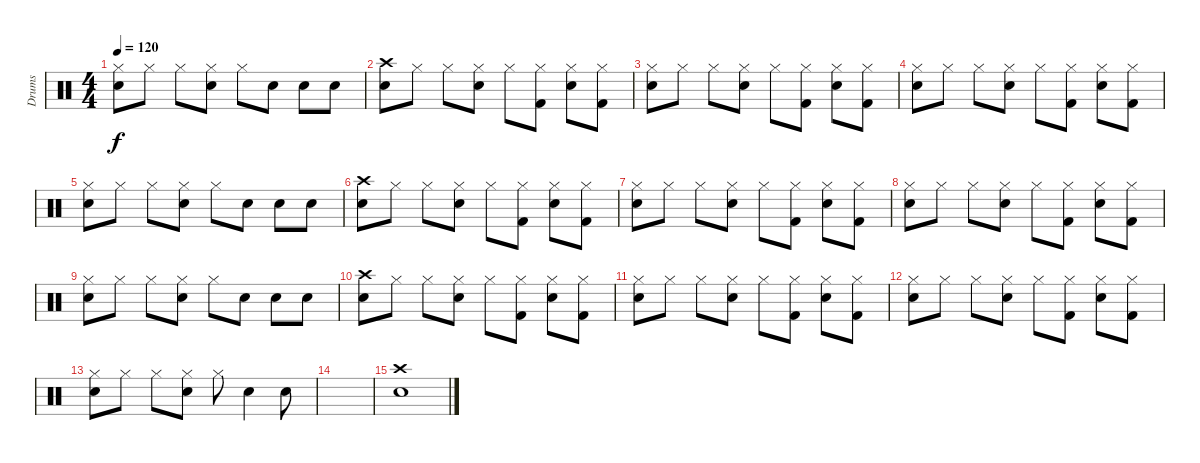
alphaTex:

\track ("Drums" "Drums") {instrument percussion}
\staff {score}
\articulation defaults
\ts (4 4)
\tempo 120
\clef neutral
\ks c
("Hi-Hat (closed)" "Snare (hit) 2").8{dy f} "Hi-Hat (closed)".8 "Hi-Hat (closed)".8 ("Hi-Hat (closed)" "Snare (hit) 2").8 "Hi-Hat (closed)".8 "Snare (hit) 2".8 "Snare (hit) 2".8 "Snare (hit) 2".8 |
("Crash high (hit)" "Snare (hit) 2").8 "Hi-Hat (closed)".8 "Hi-Hat (closed)".8 ("Hi-Hat (closed)" "Snare (hit) 2").8 "Hi-Hat (closed)".8 ("Hi-Hat (closed)" "Kick (hit) 2").8 ("Hi-Hat (closed)" "Snare (hit) 2").8 ("Hi-Hat (closed)" "Kick (hit) 2").8 |
("Hi-Hat (closed)" "Snare (hit) 2").8 "Hi-Hat (closed)".8 "Hi-Hat (closed)".8 ("Hi-Hat (closed)" "Snare (hit) 2").8 "Hi-Hat (closed)".8 ("Hi-Hat (closed)" "Kick (hit) 2").8 ("Hi-Hat (closed)" "Snare (hit) 2").8 ("Hi-Hat (closed)" "Kick (hit) 2").8 |
("Hi-Hat (closed)" "Snare (hit) 2").8 "Hi-Hat (closed)".8 "Hi-Hat (closed)".8 ("Hi-Hat (closed)" "Snare (hit) 2").8 "Hi-Hat (closed)".8 ("Hi-Hat (closed)" "Kick (hit) 2").8 ("Hi-Hat (closed)" "Snare (hit) 2").8 ("Hi-Hat (closed)" "Kick (hit) 2").8 |
("Hi-Hat (closed)" "Snare (hit) 2").8 "Hi-Hat (closed)".8 "Hi-Hat (closed)".8 ("Hi-Hat (closed)" "Snare (hit) 2").8 "Hi-Hat (closed)".8 "Snare (hit) 2".8 "Snare (hit) 2".8 "Snare (hit) 2".8 |
("Crash high (hit)" "Snare (hit) 2").8 "Hi-Hat (closed)".8 "Hi-Hat (closed)".8 ("Hi-Hat (closed)" "Snare (hit) 2").8 "Hi-Hat (closed)".8 ("Hi-Hat (closed)" "Kick (hit) 2").8 ("Hi-Hat (closed)" "Snare (hit) 2").8 ("Hi-Hat (closed)" "Kick (hit) 2").8 |
("Hi-Hat (closed)" "Snare (hit) 2").8 "Hi-Hat (closed)".8 "Hi-Hat (closed)".8 ("Hi-Hat (closed)" "Snare (hit) 2").8 "Hi-Hat (closed)".8 ("Hi-Hat (closed)" "Kick (hit) 2").8 ("Hi-Hat (closed)" "Snare (hit) 2").8 ("Hi-Hat (closed)" "Kick (hit) 2").8 |
("Hi-Hat (closed)" "Snare (hit) 2").8 "Hi-Hat (closed)".8 "Hi-Hat (closed)".8 ("Hi-Hat (closed)" "Snare (hit) 2").8 "Hi-Hat (closed)".8 ("Hi-Hat (closed)" "Kick (hit) 2").8 ("Hi-Hat (closed)" "Snare (hit) 2").8 ("Hi-Hat (closed)" "Kick (hit) 2").8 |
("Hi-Hat (closed)" "Snare (hit) 2").8 "Hi-Hat (closed)".8 "Hi-Hat (closed)".8 ("Hi-Hat (closed)" "Snare (hit) 2").8 "Hi-Hat (closed)".8 "Snare (hit) 2".8 "Snare (hit) 2".8 "Snare (hit) 2".8 |
("Crash high (hit)" "Snare (hit) 2").8 "Hi-Hat (closed)".8 "Hi-Hat (closed)".8 ("Hi-Hat (closed)" "Snare (hit) 2").8 "Hi-Hat (closed)".8 ("Hi-Hat (closed)" "Kick (hit) 2").8 ("Hi-Hat (closed)" "Snare (hit) 2").8 ("Hi-Hat (closed)" "Kick (hit) 2").8 |
("Hi-Hat (closed)" "Snare (hit) 2").8 "Hi-Hat (closed)".8 "Hi-Hat (closed)".8 ("Hi-Hat (closed)" "Snare (hit) 2").8 "Hi-Hat (closed)".8 ("Hi-Hat (closed)" "Kick (hit) 2").8 ("Hi-Hat (closed)" "Snare (hit) 2").8 ("Hi-Hat (closed)" "Kick (hit) 2").8 |
("Hi-Hat (closed)" "Snare (hit) 2").8 "Hi-Hat (closed)".8 "Hi-Hat (closed)".8 ("Hi-Hat (closed)" "Snare (hit) 2").8 "Hi-Hat (closed)".8 ("Hi-Hat (closed)" "Kick (hit) 2").8 ("Hi-Hat (closed)" "Snare (hit) 2").8 ("Hi-Hat (closed)" "Kick (hit) 2").8 |
("Hi-Hat (closed)" "Snare (hit) 2").8 "Hi-Hat (closed)".8 "Hi-Hat (closed)".8 ("Hi-Hat (closed)" "Snare (hit) 2").8 "Hi-Hat (closed)".8 "Snare (hit) 2".4 "Snare (hit) 2".8 |
|
("Crash high (hit)" "Snare (hit) 2").1
